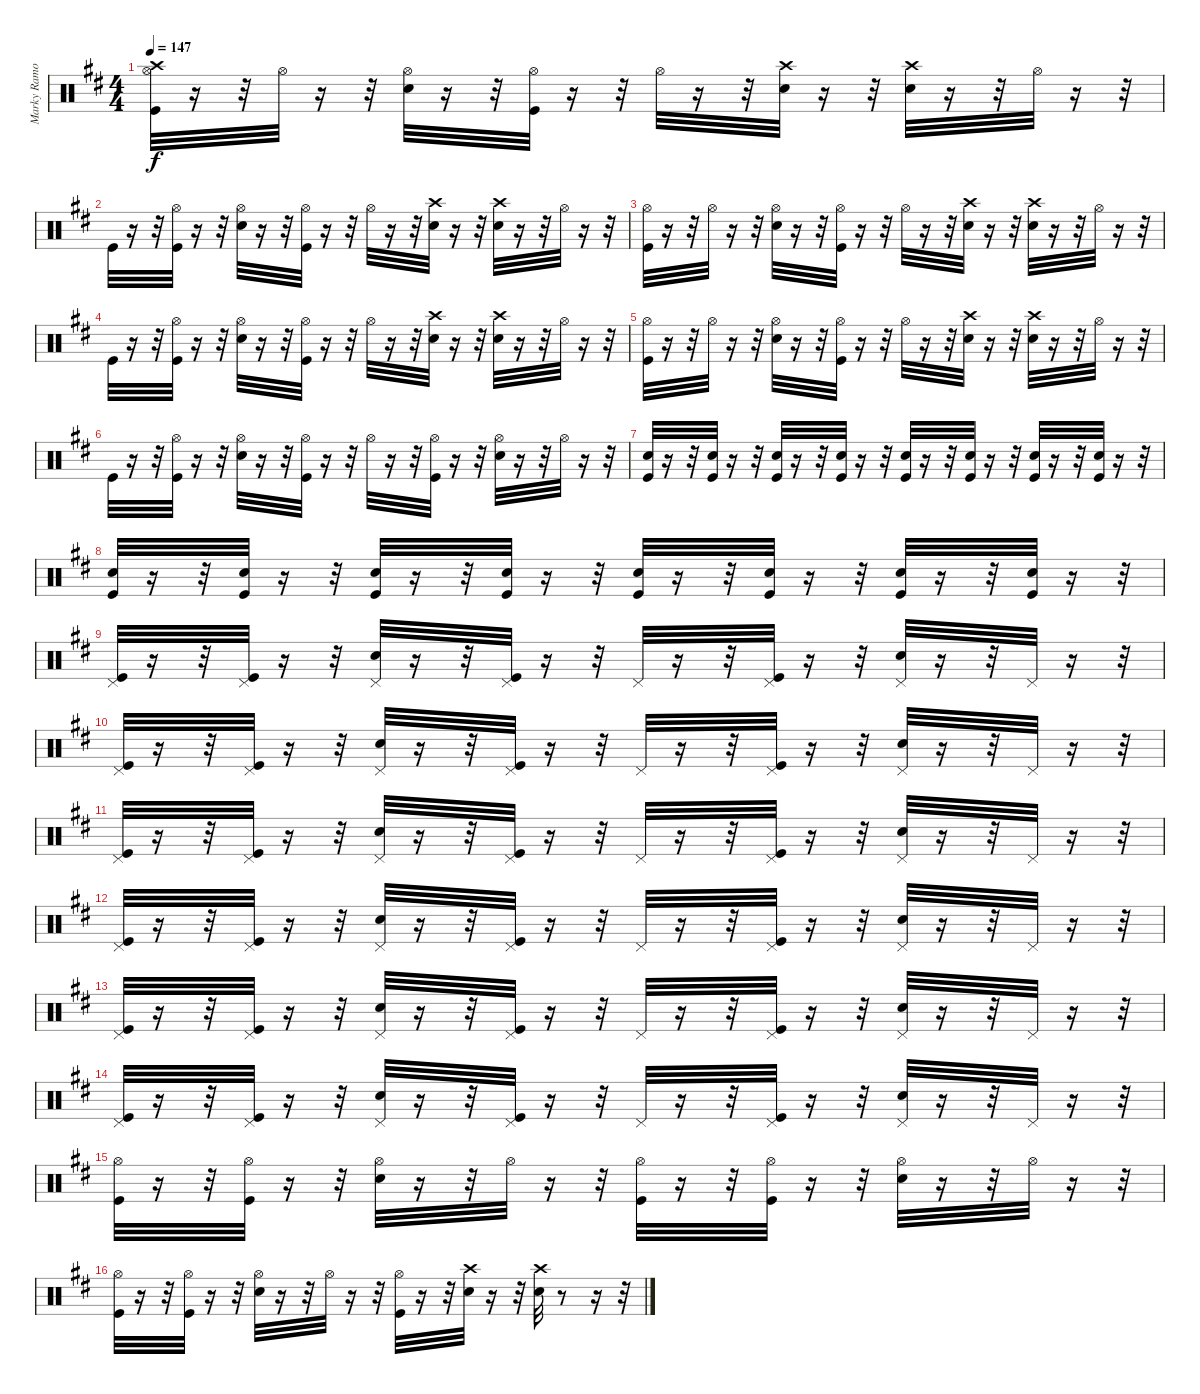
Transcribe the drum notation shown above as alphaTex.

\track ("Marky Ramone" "Marky Ramo") {instrument percussion}
\staff {score}
\articulation defaults
\ts (4 4)
\tempo 147
\clef neutral
\ks d
("Hi-Hat (open)" "Crash high (hit)" "Kick (hit)").32{dy f} r.16 r.32 "Hi-Hat (open)".32 r.16 r.32 ("Hi-Hat (open)" "Electric Snare (hit)").32 r.16 r.32 ("Hi-Hat (open)" "Kick (hit)").32 r.16 r.32 "Hi-Hat (open)".32 r.16 r.32 ("Crash high (hit)" "Electric Snare (hit)").32 r.16 r.32 ("Crash high (hit)" "Electric Snare (hit)").32 r.16 r.32 "Hi-Hat (open)".32 r.16 r.32 |
"Kick (hit)".32 r.16 r.32 ("Hi-Hat (open)" "Kick (hit)").32 r.16 r.32 ("Hi-Hat (open)" "Electric Snare (hit)").32 r.16 r.32 ("Hi-Hat (open)" "Kick (hit)").32 r.16 r.32 "Hi-Hat (open)".32 r.16 r.32 ("Crash high (hit)" "Electric Snare (hit)").32 r.16 r.32 ("Crash high (hit)" "Electric Snare (hit)").32 r.16 r.32 "Hi-Hat (open)".32 r.16 r.32 |
("Hi-Hat (open)" "Kick (hit)").32 r.16 r.32 "Hi-Hat (open)".32 r.16 r.32 ("Hi-Hat (open)" "Electric Snare (hit)").32 r.16 r.32 ("Hi-Hat (open)" "Kick (hit)").32 r.16 r.32 "Hi-Hat (open)".32 r.16 r.32 ("Crash high (hit)" "Electric Snare (hit)").32 r.16 r.32 ("Crash high (hit)" "Electric Snare (hit)").32 r.16 r.32 "Hi-Hat (open)".32 r.16 r.32 |
"Kick (hit)".32 r.16 r.32 ("Hi-Hat (open)" "Kick (hit)").32 r.16 r.32 ("Hi-Hat (open)" "Electric Snare (hit)").32 r.16 r.32 ("Hi-Hat (open)" "Kick (hit)").32 r.16 r.32 "Hi-Hat (open)".32 r.16 r.32 ("Crash high (hit)" "Electric Snare (hit)").32 r.16 r.32 ("Crash high (hit)" "Electric Snare (hit)").32 r.16 r.32 "Hi-Hat (open)".32 r.16 r.32 |
("Hi-Hat (open)" "Kick (hit)").32 r.16 r.32 "Hi-Hat (open)".32 r.16 r.32 ("Hi-Hat (open)" "Electric Snare (hit)").32 r.16 r.32 ("Hi-Hat (open)" "Kick (hit)").32 r.16 r.32 "Hi-Hat (open)".32 r.16 r.32 ("Crash high (hit)" "Electric Snare (hit)").32 r.16 r.32 ("Crash high (hit)" "Electric Snare (hit)").32 r.16 r.32 "Hi-Hat (open)".32 r.16 r.32 |
"Kick (hit)".32 r.16 r.32 ("Hi-Hat (open)" "Kick (hit)").32 r.16 r.32 ("Hi-Hat (open)" "Electric Snare (hit)").32 r.16 r.32 ("Hi-Hat (open)" "Kick (hit)").32 r.16 r.32 "Hi-Hat (open)".32 r.16 r.32 ("Kick (hit)" "Hi-Hat (open)").32 r.16 r.32 ("Electric Snare (hit)" "Hi-Hat (open)").32 r.16 r.32 "Hi-Hat (open)".32 r.16 r.32 |
("Kick (hit)" "Electric Snare (hit)").32 r.16 r.32 ("Kick (hit)" "Electric Snare (hit)").32 r.16 r.32 ("Kick (hit)" "Electric Snare (hit)").32 r.16 r.32 ("Kick (hit)" "Electric Snare (hit)").32 r.16 r.32 ("Kick (hit)" "Electric Snare (hit)").32 r.16 r.32 ("Kick (hit)" "Electric Snare (hit)").32 r.16 r.32 ("Kick (hit)" "Electric Snare (hit)").32 r.16 r.32 ("Kick (hit)" "Electric Snare (hit)").32 r.16 r.32 |
("Kick (hit)" "Electric Snare (hit)").32 r.16 r.32 ("Kick (hit)" "Electric Snare (hit)").32 r.16 r.32 ("Kick (hit)" "Electric Snare (hit)").32 r.16 r.32 ("Kick (hit)" "Electric Snare (hit)").32 r.16 r.32 ("Kick (hit)" "Electric Snare (hit)").32 r.16 r.32 ("Kick (hit)" "Electric Snare (hit)").32 r.16 r.32 ("Kick (hit)" "Electric Snare (hit)").32 r.16 r.32 ("Kick (hit)" "Electric Snare (hit)").32 r.16 r.32 |
("Pedal Hi-Hat (hit)" "Kick (hit)").32 r.16 r.32 ("Pedal Hi-Hat (hit)" "Kick (hit)").32 r.16 r.32 ("Pedal Hi-Hat (hit)" "Electric Snare (hit)").32 r.16 r.32 ("Pedal Hi-Hat (hit)" "Kick (hit)").32 r.16 r.32 "Pedal Hi-Hat (hit)".32 r.16 r.32 ("Pedal Hi-Hat (hit)" "Kick (hit)").32 r.16 r.32 ("Pedal Hi-Hat (hit)" "Electric Snare (hit)").32 r.16 r.32 "Pedal Hi-Hat (hit)".32 r.16 r.32 |
("Pedal Hi-Hat (hit)" "Kick (hit)").32 r.16 r.32 ("Pedal Hi-Hat (hit)" "Kick (hit)").32 r.16 r.32 ("Pedal Hi-Hat (hit)" "Electric Snare (hit)").32 r.16 r.32 ("Pedal Hi-Hat (hit)" "Kick (hit)").32 r.16 r.32 "Pedal Hi-Hat (hit)".32 r.16 r.32 ("Pedal Hi-Hat (hit)" "Kick (hit)").32 r.16 r.32 ("Pedal Hi-Hat (hit)" "Electric Snare (hit)").32 r.16 r.32 "Pedal Hi-Hat (hit)".32 r.16 r.32 |
("Pedal Hi-Hat (hit)" "Kick (hit)").32 r.16 r.32 ("Pedal Hi-Hat (hit)" "Kick (hit)").32 r.16 r.32 ("Pedal Hi-Hat (hit)" "Electric Snare (hit)").32 r.16 r.32 ("Pedal Hi-Hat (hit)" "Kick (hit)").32 r.16 r.32 "Pedal Hi-Hat (hit)".32 r.16 r.32 ("Pedal Hi-Hat (hit)" "Kick (hit)").32 r.16 r.32 ("Pedal Hi-Hat (hit)" "Electric Snare (hit)").32 r.16 r.32 "Pedal Hi-Hat (hit)".32 r.16 r.32 |
("Pedal Hi-Hat (hit)" "Kick (hit)").32 r.16 r.32 ("Pedal Hi-Hat (hit)" "Kick (hit)").32 r.16 r.32 ("Pedal Hi-Hat (hit)" "Electric Snare (hit)").32 r.16 r.32 ("Pedal Hi-Hat (hit)" "Kick (hit)").32 r.16 r.32 "Pedal Hi-Hat (hit)".32 r.16 r.32 ("Pedal Hi-Hat (hit)" "Kick (hit)").32 r.16 r.32 ("Pedal Hi-Hat (hit)" "Electric Snare (hit)").32 r.16 r.32 "Pedal Hi-Hat (hit)".32 r.16 r.32 |
("Pedal Hi-Hat (hit)" "Kick (hit)").32 r.16 r.32 ("Pedal Hi-Hat (hit)" "Kick (hit)").32 r.16 r.32 ("Pedal Hi-Hat (hit)" "Electric Snare (hit)").32 r.16 r.32 ("Pedal Hi-Hat (hit)" "Kick (hit)").32 r.16 r.32 "Pedal Hi-Hat (hit)".32 r.16 r.32 ("Pedal Hi-Hat (hit)" "Kick (hit)").32 r.16 r.32 ("Pedal Hi-Hat (hit)" "Electric Snare (hit)").32 r.16 r.32 "Pedal Hi-Hat (hit)".32 r.16 r.32 |
("Pedal Hi-Hat (hit)" "Kick (hit)").32 r.16 r.32 ("Pedal Hi-Hat (hit)" "Kick (hit)").32 r.16 r.32 ("Pedal Hi-Hat (hit)" "Electric Snare (hit)").32 r.16 r.32 ("Pedal Hi-Hat (hit)" "Kick (hit)").32 r.16 r.32 "Pedal Hi-Hat (hit)".32 r.16 r.32 ("Pedal Hi-Hat (hit)" "Kick (hit)").32 r.16 r.32 ("Pedal Hi-Hat (hit)" "Electric Snare (hit)").32 r.16 r.32 "Pedal Hi-Hat (hit)".32 r.16 r.32 |
("Hi-Hat (open)" "Kick (hit)").32 r.16 r.32 ("Hi-Hat (open)" "Kick (hit)").32 r.16 r.32 ("Hi-Hat (open)" "Electric Snare (hit)").32 r.16 r.32 "Hi-Hat (open)".32 r.16 r.32 ("Hi-Hat (open)" "Kick (hit)").32 r.16 r.32 ("Hi-Hat (open)" "Kick (hit)").32 r.16 r.32 ("Hi-Hat (open)" "Electric Snare (hit)").32 r.16 r.32 "Hi-Hat (open)".32 r.16 r.32 |
("Hi-Hat (open)" "Kick (hit)").32 r.16 r.32 ("Hi-Hat (open)" "Kick (hit)").32 r.16 r.32 ("Hi-Hat (open)" "Electric Snare (hit)").32 r.16 r.32 "Hi-Hat (open)".32 r.16 r.32 ("Hi-Hat (open)" "Kick (hit)").32 r.16 r.32 ("Crash high (hit)" "Electric Snare (hit)").32 r.16 r.32 ("Crash high (hit)" "Electric Snare (hit)").32 r.8 r.16 r.32
